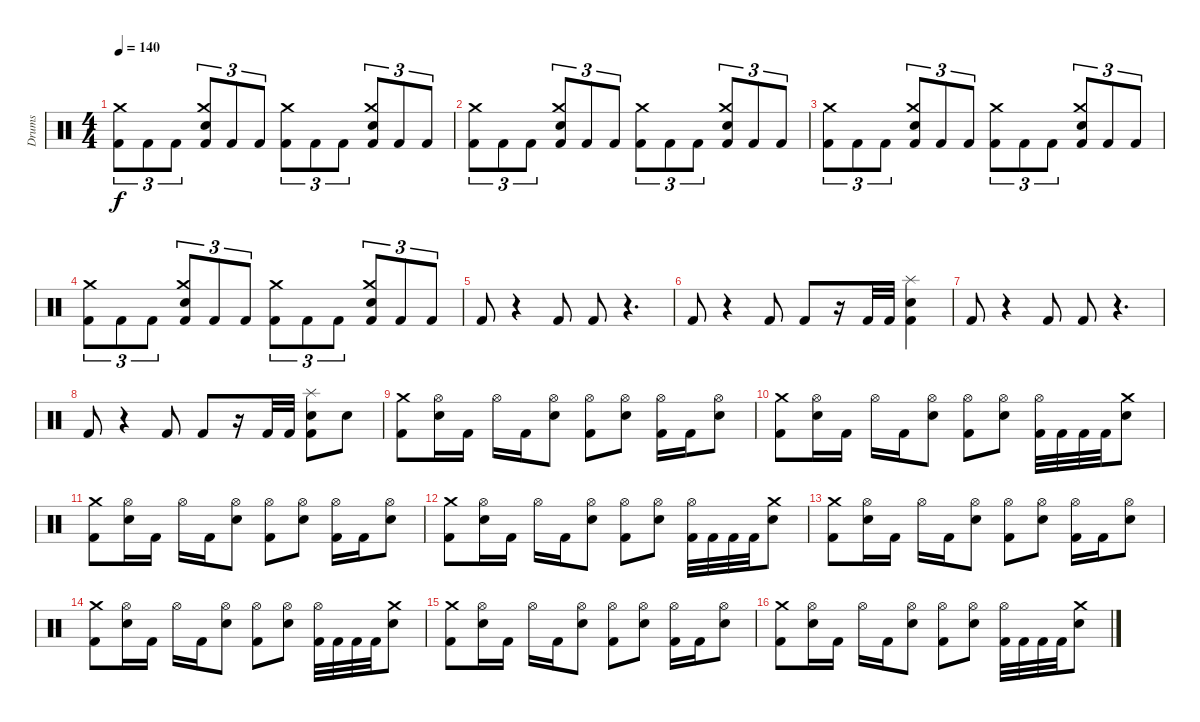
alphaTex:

\track ("Drums" "Drums") {instrument percussion}
\staff {score}
\articulation defaults
\ts (4 4)
\tempo 140
\clef neutral
\ks c
("Kick (hit) 2" "Crash medium (hit)").8{tu (3 2) dy f} "Kick (hit) 2".8{tu (3 2)} "Kick (hit) 2".8{tu (3 2)} ("Electric Snare (hit)" "Kick (hit) 2" "Crash medium (hit)").8{tu (3 2)} "Kick (hit) 2".8{tu (3 2)} "Kick (hit) 2".8{tu (3 2)} ("Kick (hit) 2" "Crash medium (hit)").8{tu (3 2)} "Kick (hit) 2".8{tu (3 2)} "Kick (hit) 2".8{tu (3 2)} ("Electric Snare (hit)" "Kick (hit) 2" "Crash medium (hit)").8{tu (3 2)} "Kick (hit) 2".8{tu (3 2)} "Kick (hit) 2".8{tu (3 2)} |
("Kick (hit) 2" "Crash medium (hit)").8{tu (3 2)} "Kick (hit) 2".8{tu (3 2)} "Kick (hit) 2".8{tu (3 2)} ("Electric Snare (hit)" "Kick (hit) 2" "Crash medium (hit)").8{tu (3 2)} "Kick (hit) 2".8{tu (3 2)} "Kick (hit) 2".8{tu (3 2)} ("Kick (hit) 2" "Crash medium (hit)").8{tu (3 2)} "Kick (hit) 2".8{tu (3 2)} "Kick (hit) 2".8{tu (3 2)} ("Electric Snare (hit)" "Kick (hit) 2" "Crash medium (hit)").8{tu (3 2)} "Kick (hit) 2".8{tu (3 2)} "Kick (hit) 2".8{tu (3 2)} |
("Kick (hit) 2" "Crash medium (hit)").8{tu (3 2)} "Kick (hit) 2".8{tu (3 2)} "Kick (hit) 2".8{tu (3 2)} ("Electric Snare (hit)" "Kick (hit) 2" "Crash medium (hit)").8{tu (3 2)} "Kick (hit) 2".8{tu (3 2)} "Kick (hit) 2".8{tu (3 2)} ("Kick (hit) 2" "Crash medium (hit)").8{tu (3 2)} "Kick (hit) 2".8{tu (3 2)} "Kick (hit) 2".8{tu (3 2)} ("Electric Snare (hit)" "Kick (hit) 2" "Crash medium (hit)").8{tu (3 2)} "Kick (hit) 2".8{tu (3 2)} "Kick (hit) 2".8{tu (3 2)} |
("Kick (hit) 2" "Crash medium (hit)").8{tu (3 2)} "Kick (hit) 2".8{tu (3 2)} "Kick (hit) 2".8{tu (3 2)} ("Electric Snare (hit)" "Kick (hit) 2" "Crash medium (hit)").8{tu (3 2)} "Kick (hit) 2".8{tu (3 2)} "Kick (hit) 2".8{tu (3 2)} ("Kick (hit) 2" "Crash medium (hit)").8{tu (3 2)} "Kick (hit) 2".8{tu (3 2)} "Kick (hit) 2".8{tu (3 2)} ("Electric Snare (hit)" "Kick (hit) 2" "Crash medium (hit)").8{tu (3 2)} "Kick (hit) 2".8{tu (3 2)} "Kick (hit) 2".8{tu (3 2)} |
"Kick (hit) 2".8 r.4 "Kick (hit) 2".8 "Kick (hit) 2".8 r.4{d} |
"Kick (hit) 2".8 r.4 "Kick (hit) 2".8 "Kick (hit) 2".8 r.16 "Kick (hit) 2".32 "Kick (hit) 2".32 ("Electric Snare (hit)" "Splash (hit)" "Kick (hit) 2").4 |
"Kick (hit) 2".8 r.4 "Kick (hit) 2".8 "Kick (hit) 2".8 r.4{d} |
"Kick (hit) 2".8 r.4 "Kick (hit) 2".8 "Kick (hit) 2".8 r.16 "Kick (hit) 2".32 "Kick (hit) 2".32 ("Electric Snare (hit)" "Splash (hit)" "Kick (hit) 2").8 "Electric Snare (hit)".8 |
("Crash medium (hit)" "Kick (hit) 2").8 ("Hi-Hat (open)" "Electric Snare (hit)").16 "Kick (hit) 2".16 "Hi-Hat (open)".16 "Kick (hit) 2".16 ("Hi-Hat (open)" "Electric Snare (hit)").8 ("Hi-Hat (open)" "Kick (hit) 2").8 ("Hi-Hat (open)" "Electric Snare (hit)").8 ("Hi-Hat (open)" "Kick (hit) 2").16 "Kick (hit) 2".16 ("Hi-Hat (open)" "Electric Snare (hit)").8 |
("Crash medium (hit)" "Kick (hit) 2").8 ("Hi-Hat (open)" "Electric Snare (hit)").16 "Kick (hit) 2".16 "Hi-Hat (open)".16 "Kick (hit) 2".16 ("Hi-Hat (open)" "Electric Snare (hit)").8 ("Hi-Hat (open)" "Kick (hit) 2").8 ("Hi-Hat (open)" "Electric Snare (hit)").8 ("Hi-Hat (open)" "Kick (hit) 2").32 "Kick (hit) 2".32 "Kick (hit) 2".32 "Kick (hit) 2".32 ("Crash medium (hit)" "Electric Snare (hit)").8 |
("Crash medium (hit)" "Kick (hit) 2").8 ("Hi-Hat (open)" "Electric Snare (hit)").16 "Kick (hit) 2".16 "Hi-Hat (open)".16 "Kick (hit) 2".16 ("Hi-Hat (open)" "Electric Snare (hit)").8 ("Hi-Hat (open)" "Kick (hit) 2").8 ("Hi-Hat (open)" "Electric Snare (hit)").8 ("Hi-Hat (open)" "Kick (hit) 2").16 "Kick (hit) 2".16 ("Hi-Hat (open)" "Electric Snare (hit)").8 |
("Crash medium (hit)" "Kick (hit) 2").8 ("Hi-Hat (open)" "Electric Snare (hit)").16 "Kick (hit) 2".16 "Hi-Hat (open)".16 "Kick (hit) 2".16 ("Hi-Hat (open)" "Electric Snare (hit)").8 ("Hi-Hat (open)" "Kick (hit) 2").8 ("Hi-Hat (open)" "Electric Snare (hit)").8 ("Hi-Hat (open)" "Kick (hit) 2").32 "Kick (hit) 2".32 "Kick (hit) 2".32 "Kick (hit) 2".32 ("Crash medium (hit)" "Electric Snare (hit)").8 |
("Crash medium (hit)" "Kick (hit) 2").8 ("Hi-Hat (open)" "Electric Snare (hit)").16 "Kick (hit) 2".16 "Hi-Hat (open)".16 "Kick (hit) 2".16 ("Hi-Hat (open)" "Electric Snare (hit)").8 ("Hi-Hat (open)" "Kick (hit) 2").8 ("Hi-Hat (open)" "Electric Snare (hit)").8 ("Hi-Hat (open)" "Kick (hit) 2").16 "Kick (hit) 2".16 ("Hi-Hat (open)" "Electric Snare (hit)").8 |
("Crash medium (hit)" "Kick (hit) 2").8 ("Hi-Hat (open)" "Electric Snare (hit)").16 "Kick (hit) 2".16 "Hi-Hat (open)".16 "Kick (hit) 2".16 ("Hi-Hat (open)" "Electric Snare (hit)").8 ("Hi-Hat (open)" "Kick (hit) 2").8 ("Hi-Hat (open)" "Electric Snare (hit)").8 ("Hi-Hat (open)" "Kick (hit) 2").32 "Kick (hit) 2".32 "Kick (hit) 2".32 "Kick (hit) 2".32 ("Crash medium (hit)" "Electric Snare (hit)").8 |
("Crash medium (hit)" "Kick (hit) 2").8 ("Hi-Hat (open)" "Electric Snare (hit)").16 "Kick (hit) 2".16 "Hi-Hat (open)".16 "Kick (hit) 2".16 ("Hi-Hat (open)" "Electric Snare (hit)").8 ("Hi-Hat (open)" "Kick (hit) 2").8 ("Hi-Hat (open)" "Electric Snare (hit)").8 ("Hi-Hat (open)" "Kick (hit) 2").16 "Kick (hit) 2".16 ("Hi-Hat (open)" "Electric Snare (hit)").8 |
("Crash medium (hit)" "Kick (hit) 2").8 ("Hi-Hat (open)" "Electric Snare (hit)").16 "Kick (hit) 2".16 "Hi-Hat (open)".16 "Kick (hit) 2".16 ("Hi-Hat (open)" "Electric Snare (hit)").8 ("Hi-Hat (open)" "Kick (hit) 2").8 ("Hi-Hat (open)" "Electric Snare (hit)").8 ("Hi-Hat (open)" "Kick (hit) 2").32 "Kick (hit) 2".32 "Kick (hit) 2".32 "Kick (hit) 2".32 ("Crash medium (hit)" "Electric Snare (hit)").8
